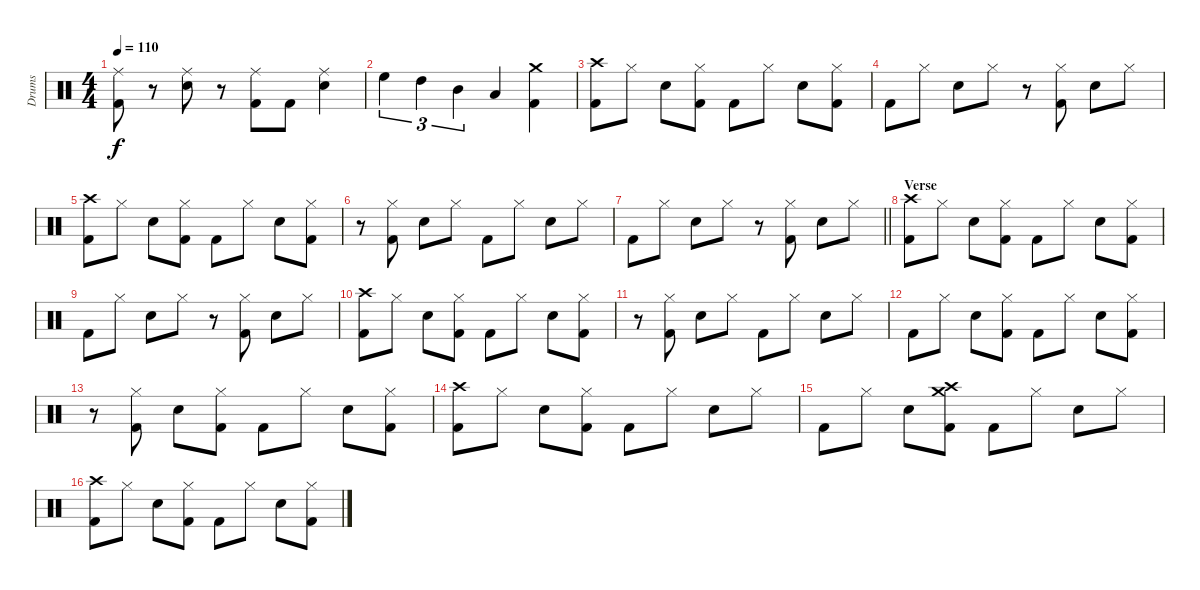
\track ("Drums" "Drums") {instrument percussion}
\staff {score}
\articulation defaults
\ts (4 4)
\tempo 110
\clef neutral
\ks c
("Kick (hit) 2" "Ride (middle)").8{dy f} r.8 ("Snare (hit) 2" "Ride (middle)").8 r.8 ("Kick (hit) 2" "Ride (middle)").8 "Kick (hit) 2".8 ("Snare (hit) 2" "Ride (middle)").4 |
"High Floor Tom (hit)".4{tu (3 2)} "High Tom (hit)".4{tu (3 2)} "Mid Tom (hit)".4{tu (3 2)} "Low Tom (hit)".4 ("Kick (hit) 2" "Crash medium (hit)").4 |
("Kick (hit) 2" "Crash high (hit)").8 "Hi-Hat (closed)".8 "Snare (hit) 2".8 ("Kick (hit) 2" "Hi-Hat (closed)").8 "Kick (hit) 2".8 "Hi-Hat (closed)".8 "Snare (hit) 2".8 ("Kick (hit) 2" "Hi-Hat (closed)").8 |
"Kick (hit) 2".8 "Hi-Hat (closed)".8 "Snare (hit) 2".8 "Hi-Hat (closed)".8 r.8 ("Kick (hit) 2" "Hi-Hat (closed)").8 "Snare (hit) 2".8 "Hi-Hat (closed)".8 |
("Kick (hit) 2" "Crash high (hit)").8 "Hi-Hat (closed)".8 "Snare (hit) 2".8 ("Kick (hit) 2" "Hi-Hat (closed)").8 "Kick (hit) 2".8 "Hi-Hat (closed)".8 "Snare (hit) 2".8 ("Kick (hit) 2" "Hi-Hat (closed)").8 |
r.8 ("Kick (hit) 2" "Hi-Hat (closed)").8 "Snare (hit) 2".8 "Hi-Hat (closed)".8 "Kick (hit) 2".8 "Hi-Hat (closed)".8 "Snare (hit) 2".8 "Hi-Hat (closed)".8 |
\barLineRight lightlight "Kick (hit) 2".8 "Hi-Hat (closed)".8 "Snare (hit) 2".8 "Hi-Hat (closed)".8
r.8 ("Kick (hit) 2" "Hi-Hat (closed)").8 "Snare (hit) 2".8 "Hi-Hat (closed)".8 |
\section ("" "Verse")
("Kick (hit) 2" "Crash high (hit)").8 "Hi-Hat (closed)".8 "Snare (hit) 2".8 ("Kick (hit) 2" "Hi-Hat (closed)").8 "Kick (hit) 2".8 "Hi-Hat (closed)".8 "Snare (hit) 2".8 ("Kick (hit) 2" "Hi-Hat (closed)").8 |
"Kick (hit) 2".8 "Hi-Hat (closed)".8 "Snare (hit) 2".8 "Hi-Hat (closed)".8 r.8 ("Kick (hit) 2" "Hi-Hat (closed)").8 "Snare (hit) 2".8 "Hi-Hat (closed)".8 |
("Kick (hit) 2" "Crash high (hit)").8 "Hi-Hat (closed)".8 "Snare (hit) 2".8 ("Kick (hit) 2" "Hi-Hat (closed)").8 "Kick (hit) 2".8 "Hi-Hat (closed)".8 "Snare (hit) 2".8 ("Kick (hit) 2" "Hi-Hat (closed)").8 |
r.8 ("Kick (hit) 2" "Hi-Hat (closed)").8 "Snare (hit) 2".8 "Hi-Hat (closed)".8 "Kick (hit) 2".8 "Hi-Hat (closed)".8 "Snare (hit) 2".8 "Hi-Hat (closed)".8 |
"Kick (hit) 2".8 "Hi-Hat (closed)".8 "Snare (hit) 2".8 ("Kick (hit) 2" "Hi-Hat (closed)").8 "Kick (hit) 2".8 "Hi-Hat (closed)".8 "Snare (hit) 2".8 ("Kick (hit) 2" "Hi-Hat (closed)").8 |
r.8 ("Kick (hit) 2" "Hi-Hat (closed)").8 "Snare (hit) 2".8 ("Kick (hit) 2" "Hi-Hat (closed)").8 "Kick (hit) 2".8 "Hi-Hat (closed)".8 "Snare (hit) 2".8 ("Kick (hit) 2" "Hi-Hat (closed)").8 |
("Kick (hit) 2" "Crash high (hit)").8 "Hi-Hat (closed)".8 "Snare (hit) 2".8 ("Kick (hit) 2" "Hi-Hat (closed)").8 "Kick (hit) 2".8 "Hi-Hat (closed)".8 "Snare (hit) 2".8 "Hi-Hat (closed)".8 |
"Kick (hit) 2".8 "Hi-Hat (closed)".8 "Snare (hit) 2".8 ("Kick (hit) 2" "Crash high (hit)" "Crash medium (hit)").8 "Kick (hit) 2".8 "Hi-Hat (closed)".8 "Snare (hit) 2".8 "Hi-Hat (closed)".8 |
("Kick (hit) 2" "Crash high (hit)").8 "Hi-Hat (closed)".8 "Snare (hit) 2".8 ("Kick (hit) 2" "Hi-Hat (closed)").8 "Kick (hit) 2".8 "Hi-Hat (closed)".8 "Snare (hit) 2".8 ("Kick (hit) 2" "Hi-Hat (closed)").8
